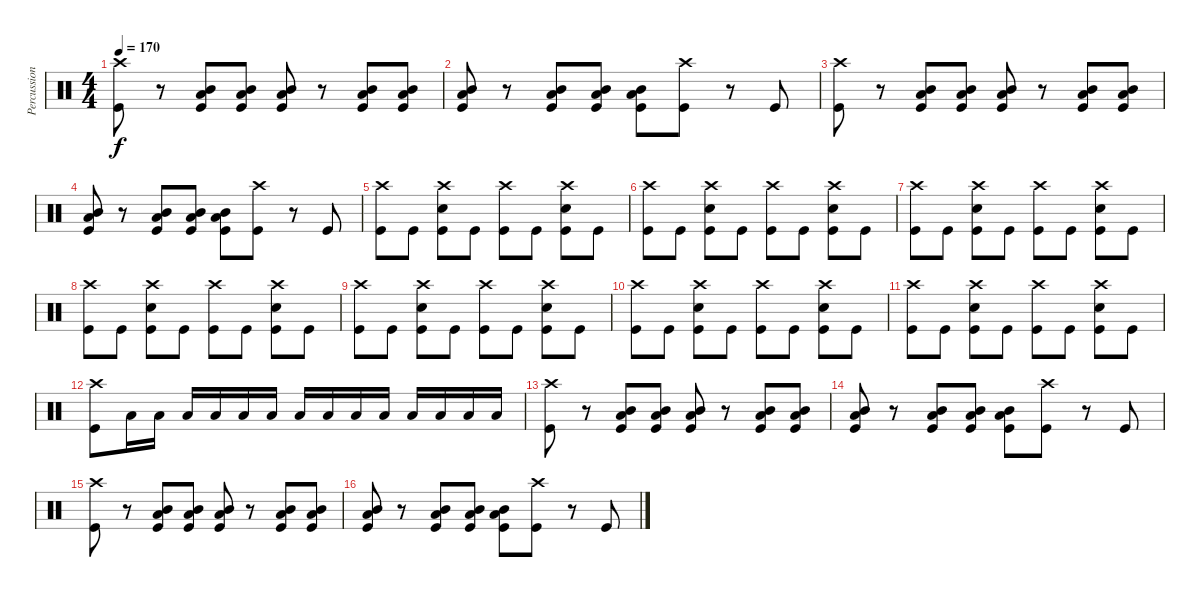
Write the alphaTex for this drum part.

\track ("Percussion" "Percussion") {instrument percussion}
\staff {score}
\articulation defaults
\ts (4 4)
\tempo 170
\clef neutral
\ks c
("Crash high (hit)" "Kick (hit)").8{dy f} r.8 ("Low Tom (hit)" "Mid Tom (hit)" "Kick (hit)").8 ("Low Tom (hit)" "Mid Tom (hit)" "Kick (hit)").8 ("Low Tom (hit)" "Mid Tom (hit)" "Kick (hit)").8 r.8 ("Low Tom (hit)" "Mid Tom (hit)" "Kick (hit)").8 ("Low Tom (hit)" "Mid Tom (hit)" "Kick (hit)").8 |
("Low Tom (hit)" "Mid Tom (hit)" "Kick (hit)").8 r.8 ("Low Tom (hit)" "Mid Tom (hit)" "Kick (hit)").8 ("Low Tom (hit)" "Mid Tom (hit)" "Kick (hit)").8 ("Low Tom (hit)" "Mid Tom (hit)" "Kick (hit)").8 ("Crash high (hit)" "Kick (hit)").8 r.8 "Kick (hit)".8 |
("Crash high (hit)" "Kick (hit)").8 r.8 ("Low Tom (hit)" "Mid Tom (hit)" "Kick (hit)").8 ("Low Tom (hit)" "Mid Tom (hit)" "Kick (hit)").8 ("Low Tom (hit)" "Mid Tom (hit)" "Kick (hit)").8 r.8 ("Low Tom (hit)" "Mid Tom (hit)" "Kick (hit)").8 ("Low Tom (hit)" "Mid Tom (hit)" "Kick (hit)").8 |
("Low Tom (hit)" "Mid Tom (hit)" "Kick (hit)").8 r.8 ("Low Tom (hit)" "Mid Tom (hit)" "Kick (hit)").8 ("Low Tom (hit)" "Mid Tom (hit)" "Kick (hit)").8 ("Low Tom (hit)" "Mid Tom (hit)" "Kick (hit)").8 ("Crash high (hit)" "Kick (hit)").8 r.8 "Kick (hit)".8 |
("Crash high (hit)" "Kick (hit)").8 "Kick (hit)".8 ("Snare (hit) 2" "Crash high (hit)" "Kick (hit)").8 "Kick (hit)".8 ("Crash high (hit)" "Kick (hit)").8 "Kick (hit)".8 ("Snare (hit) 2" "Crash high (hit)" "Kick (hit)").8 "Kick (hit)".8 |
("Crash high (hit)" "Kick (hit)").8 "Kick (hit)".8 ("Snare (hit) 2" "Crash high (hit)" "Kick (hit)").8 "Kick (hit)".8 ("Crash high (hit)" "Kick (hit)").8 "Kick (hit)".8 ("Snare (hit) 2" "Crash high (hit)" "Kick (hit)").8 "Kick (hit)".8 |
("Crash high (hit)" "Kick (hit)").8 "Kick (hit)".8 ("Snare (hit) 2" "Crash high (hit)" "Kick (hit)").8 "Kick (hit)".8 ("Crash high (hit)" "Kick (hit)").8 "Kick (hit)".8 ("Snare (hit) 2" "Crash high (hit)" "Kick (hit)").8 "Kick (hit)".8 |
("Crash high (hit)" "Kick (hit)").8 "Kick (hit)".8 ("Snare (hit) 2" "Crash high (hit)" "Kick (hit)").8 "Kick (hit)".8 ("Crash high (hit)" "Kick (hit)").8 "Kick (hit)".8 ("Snare (hit) 2" "Crash high (hit)" "Kick (hit)").8 "Kick (hit)".8 |
("Crash high (hit)" "Kick (hit)").8 "Kick (hit)".8 ("Snare (hit) 2" "Crash high (hit)" "Kick (hit)").8 "Kick (hit)".8 ("Crash high (hit)" "Kick (hit)").8 "Kick (hit)".8 ("Snare (hit) 2" "Crash high (hit)" "Kick (hit)").8 "Kick (hit)".8 |
("Crash high (hit)" "Kick (hit)").8 "Kick (hit)".8 ("Snare (hit) 2" "Crash high (hit)" "Kick (hit)").8 "Kick (hit)".8 ("Crash high (hit)" "Kick (hit)").8 "Kick (hit)".8 ("Snare (hit) 2" "Crash high (hit)" "Kick (hit)").8 "Kick (hit)".8 |
("Crash high (hit)" "Kick (hit)").8 "Kick (hit)".8 ("Snare (hit) 2" "Crash high (hit)" "Kick (hit)").8 "Kick (hit)".8 ("Crash high (hit)" "Kick (hit)").8 "Kick (hit)".8 ("Snare (hit) 2" "Crash high (hit)" "Kick (hit)").8 "Kick (hit)".8 |
("Crash high (hit)" "Kick (hit)").8 "Low Tom (hit)".16 "Low Tom (hit)".16 "Low Tom (hit)".16 "Low Tom (hit)".16 "Low Tom (hit)".16 "Low Tom (hit)".16 "Low Tom (hit)".16 "Low Tom (hit)".16 "Low Tom (hit)".16 "Low Tom (hit)".16 "Low Tom (hit)".16 "Low Tom (hit)".16 "Low Tom (hit)".16 "Low Tom (hit)".16 |
("Crash high (hit)" "Kick (hit)").8 r.8 ("Low Tom (hit)" "Mid Tom (hit)" "Kick (hit)").8 ("Low Tom (hit)" "Mid Tom (hit)" "Kick (hit)").8 ("Low Tom (hit)" "Mid Tom (hit)" "Kick (hit)").8 r.8 ("Low Tom (hit)" "Mid Tom (hit)" "Kick (hit)").8 ("Low Tom (hit)" "Mid Tom (hit)" "Kick (hit)").8 |
("Low Tom (hit)" "Mid Tom (hit)" "Kick (hit)").8 r.8 ("Low Tom (hit)" "Mid Tom (hit)" "Kick (hit)").8 ("Low Tom (hit)" "Mid Tom (hit)" "Kick (hit)").8 ("Low Tom (hit)" "Mid Tom (hit)" "Kick (hit)").8 ("Crash high (hit)" "Kick (hit)").8 r.8 "Kick (hit)".8 |
("Crash high (hit)" "Kick (hit)").8 r.8 ("Low Tom (hit)" "Mid Tom (hit)" "Kick (hit)").8 ("Low Tom (hit)" "Mid Tom (hit)" "Kick (hit)").8 ("Low Tom (hit)" "Mid Tom (hit)" "Kick (hit)").8 r.8 ("Low Tom (hit)" "Mid Tom (hit)" "Kick (hit)").8 ("Low Tom (hit)" "Mid Tom (hit)" "Kick (hit)").8 |
("Low Tom (hit)" "Mid Tom (hit)" "Kick (hit)").8 r.8 ("Low Tom (hit)" "Mid Tom (hit)" "Kick (hit)").8 ("Low Tom (hit)" "Mid Tom (hit)" "Kick (hit)").8 ("Low Tom (hit)" "Mid Tom (hit)" "Kick (hit)").8 ("Crash high (hit)" "Kick (hit)").8 r.8 "Kick (hit)".8
